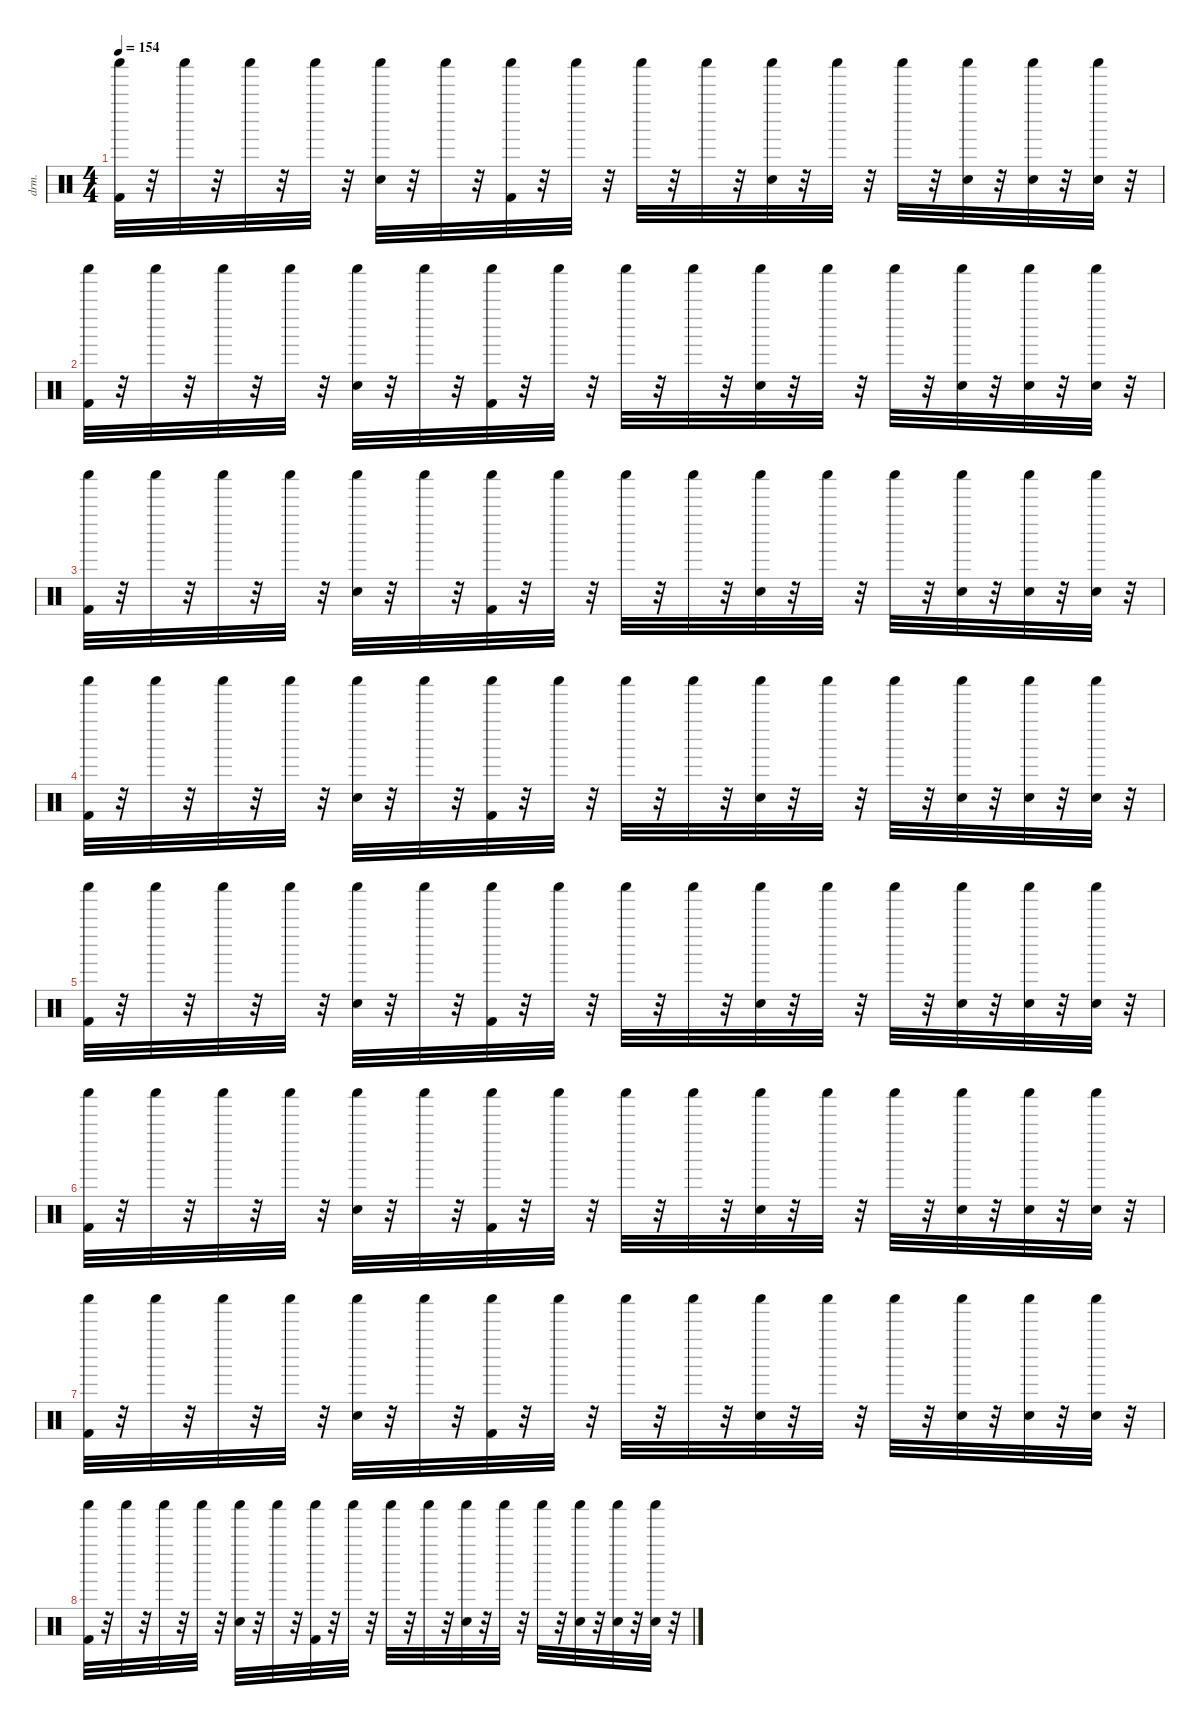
\defaultSystemsLayout 4
\hideDynamics
\bracketExtendMode nobrackets
\otherSystemsTrackNameOrientation horizontal
\track ("Percussion" "drm.") {instrument percussion}
\staff {score}
\articulation defaults
\ts (4 4)
\beaming (8 2 2 2 2)
\tempo 154
\clef neutral
\ks c
("Shaker (hit)" "Kick (hit) 2").32{dy f beam Down} r.32{beam Down} "Shaker (hit)".32{beam Down} r.32{beam Down} "Shaker (hit)".32{beam Down} r.32{beam Down} "Shaker (hit)".32{beam Down} r.32{beam Down} ("Shaker (hit)" "Snare (hit) 2").32{beam Down} r.32{beam Down} "Shaker (hit)".32{beam Down} r.32{beam Down} ("Shaker (hit)" "Kick (hit) 2").32{beam Down} r.32{beam Down} "Shaker (hit)".32{beam Down} r.32{beam Down} "Shaker (hit)".32{beam Down} r.32{beam Down} "Shaker (hit)".32{beam Down} r.32{beam Down} ("Shaker (hit)" "Snare (hit) 2").32{beam Down} r.32{beam Down} "Shaker (hit)".32{beam Down} r.32{beam Down} "Shaker (hit)".32{beam Down} r.32{beam Down} ("Shaker (hit)" "Snare (hit) 2").32{beam Down} r.32{beam Down} ("Shaker (hit)" "Snare (hit) 2").32{beam Down} r.32{beam Down} ("Shaker (hit)" "Snare (hit) 2").32{beam Down} r.32{beam Down} |
("Shaker (hit)" "Kick (hit) 2").32{beam Down} r.32{beam Down} "Shaker (hit)".32{beam Down} r.32{beam Down} "Shaker (hit)".32{beam Down} r.32{beam Down} "Shaker (hit)".32{beam Down} r.32{beam Down} ("Shaker (hit)" "Snare (hit) 2").32{beam Down} r.32{beam Down} "Shaker (hit)".32{beam Down} r.32{beam Down} ("Shaker (hit)" "Kick (hit) 2").32{beam Down} r.32{beam Down} "Shaker (hit)".32{beam Down} r.32{beam Down} "Shaker (hit)".32{beam Down} r.32{beam Down} "Shaker (hit)".32{beam Down} r.32{beam Down} ("Shaker (hit)" "Snare (hit) 2").32{beam Down} r.32{beam Down} "Shaker (hit)".32{beam Down} r.32{beam Down} "Shaker (hit)".32{beam Down} r.32{beam Down} ("Shaker (hit)" "Snare (hit) 2").32{beam Down} r.32{beam Down} ("Shaker (hit)" "Snare (hit) 2").32{beam Down} r.32{beam Down} ("Shaker (hit)" "Snare (hit) 2").32{beam Down} r.32{beam Down} |
("Shaker (hit)" "Kick (hit) 2").32{beam Down} r.32{beam Down} "Shaker (hit)".32{beam Down} r.32{beam Down} "Shaker (hit)".32{beam Down} r.32{beam Down} "Shaker (hit)".32{beam Down} r.32{beam Down} ("Shaker (hit)" "Snare (hit) 2").32{beam Down} r.32{beam Down} "Shaker (hit)".32{beam Down} r.32{beam Down} ("Shaker (hit)" "Kick (hit) 2").32{beam Down} r.32{beam Down} "Shaker (hit)".32{beam Down} r.32{beam Down} "Shaker (hit)".32{beam Down} r.32{beam Down} "Shaker (hit)".32{beam Down} r.32{beam Down} ("Shaker (hit)" "Snare (hit) 2").32{beam Down} r.32{beam Down} "Shaker (hit)".32{beam Down} r.32{beam Down} "Shaker (hit)".32{beam Down} r.32{beam Down} ("Shaker (hit)" "Snare (hit) 2").32{beam Down} r.32{beam Down} ("Shaker (hit)" "Snare (hit) 2").32{beam Down} r.32{beam Down} ("Shaker (hit)" "Snare (hit) 2").32{beam Down} r.32{beam Down} |
("Shaker (hit)" "Kick (hit) 2").32{beam Down} r.32{beam Down} "Shaker (hit)".32{beam Down} r.32{beam Down} "Shaker (hit)".32{beam Down} r.32{beam Down} "Shaker (hit)".32{beam Down} r.32{beam Down} ("Shaker (hit)" "Snare (hit) 2").32{beam Down} r.32{beam Down} "Shaker (hit)".32{beam Down} r.32{beam Down} ("Shaker (hit)" "Kick (hit) 2").32{beam Down} r.32{beam Down} "Shaker (hit)".32{beam Down} r.32{beam Down} "Shaker (hit)".32{beam Down} r.32{beam Down} "Shaker (hit)".32{beam Down} r.32{beam Down} ("Shaker (hit)" "Snare (hit) 2").32{beam Down} r.32{beam Down} "Shaker (hit)".32{beam Down} r.32{beam Down} "Shaker (hit)".32{beam Down} r.32{beam Down} ("Shaker (hit)" "Snare (hit) 2").32{beam Down} r.32{beam Down} ("Shaker (hit)" "Snare (hit) 2").32{beam Down} r.32{beam Down} ("Shaker (hit)" "Snare (hit) 2").32{beam Down} r.32{beam Down} |
("Shaker (hit)" "Kick (hit) 2").32{beam Down} r.32{beam Down} "Shaker (hit)".32{beam Down} r.32{beam Down} "Shaker (hit)".32{beam Down} r.32{beam Down} "Shaker (hit)".32{beam Down} r.32{beam Down} ("Shaker (hit)" "Snare (hit) 2").32{beam Down} r.32{beam Down} "Shaker (hit)".32{beam Down} r.32{beam Down} ("Shaker (hit)" "Kick (hit) 2").32{beam Down} r.32{beam Down} "Shaker (hit)".32{beam Down} r.32{beam Down} "Shaker (hit)".32{beam Down} r.32{beam Down} "Shaker (hit)".32{beam Down} r.32{beam Down} ("Shaker (hit)" "Snare (hit) 2").32{beam Down} r.32{beam Down} "Shaker (hit)".32{beam Down} r.32{beam Down} "Shaker (hit)".32{beam Down} r.32{beam Down} ("Shaker (hit)" "Snare (hit) 2").32{beam Down} r.32{beam Down} ("Shaker (hit)" "Snare (hit) 2").32{beam Down} r.32{beam Down} ("Shaker (hit)" "Snare (hit) 2").32{beam Down} r.32{beam Down} |
("Shaker (hit)" "Kick (hit) 2").32{beam Down} r.32{beam Down} "Shaker (hit)".32{beam Down} r.32{beam Down} "Shaker (hit)".32{beam Down} r.32{beam Down} "Shaker (hit)".32{beam Down} r.32{beam Down} ("Shaker (hit)" "Snare (hit) 2").32{beam Down} r.32{beam Down} "Shaker (hit)".32{beam Down} r.32{beam Down} ("Shaker (hit)" "Kick (hit) 2").32{beam Down} r.32{beam Down} "Shaker (hit)".32{beam Down} r.32{beam Down} "Shaker (hit)".32{beam Down} r.32{beam Down} "Shaker (hit)".32{beam Down} r.32{beam Down} ("Shaker (hit)" "Snare (hit) 2").32{beam Down} r.32{beam Down} "Shaker (hit)".32{beam Down} r.32{beam Down} "Shaker (hit)".32{beam Down} r.32{beam Down} ("Shaker (hit)" "Snare (hit) 2").32{beam Down} r.32{beam Down} ("Shaker (hit)" "Snare (hit) 2").32{beam Down} r.32{beam Down} ("Shaker (hit)" "Snare (hit) 2").32{beam Down} r.32{beam Down} |
("Shaker (hit)" "Kick (hit) 2").32{beam Down} r.32{beam Down} "Shaker (hit)".32{beam Down} r.32{beam Down} "Shaker (hit)".32{beam Down} r.32{beam Down} "Shaker (hit)".32{beam Down} r.32{beam Down} ("Shaker (hit)" "Snare (hit) 2").32{beam Down} r.32{beam Down} "Shaker (hit)".32{beam Down} r.32{beam Down} ("Shaker (hit)" "Kick (hit) 2").32{beam Down} r.32{beam Down} "Shaker (hit)".32{beam Down} r.32{beam Down} "Shaker (hit)".32{beam Down} r.32{beam Down} "Shaker (hit)".32{beam Down} r.32{beam Down} ("Shaker (hit)" "Snare (hit) 2").32{beam Down} r.32{beam Down} "Shaker (hit)".32{beam Down} r.32{beam Down} "Shaker (hit)".32{beam Down} r.32{beam Down} ("Shaker (hit)" "Snare (hit) 2").32{beam Down} r.32{beam Down} ("Shaker (hit)" "Snare (hit) 2").32{beam Down} r.32{beam Down} ("Shaker (hit)" "Snare (hit) 2").32{beam Down} r.32{beam Down} |
("Shaker (hit)" "Kick (hit) 2").32{beam Down} r.32{beam Down} "Shaker (hit)".32{beam Down} r.32{beam Down} "Shaker (hit)".32{beam Down} r.32{beam Down} "Shaker (hit)".32{beam Down} r.32{beam Down} ("Shaker (hit)" "Snare (hit) 2").32{beam Down} r.32{beam Down} "Shaker (hit)".32{beam Down} r.32{beam Down} ("Shaker (hit)" "Kick (hit) 2").32{beam Down} r.32{beam Down} "Shaker (hit)".32{beam Down} r.32{beam Down} "Shaker (hit)".32{beam Down} r.32{beam Down} "Shaker (hit)".32{beam Down} r.32{beam Down} ("Shaker (hit)" "Snare (hit) 2").32{beam Down} r.32{beam Down} "Shaker (hit)".32{beam Down} r.32{beam Down} "Shaker (hit)".32{beam Down} r.32{beam Down} ("Shaker (hit)" "Snare (hit) 2").32{beam Down} r.32{beam Down} ("Shaker (hit)" "Snare (hit) 2").32{beam Down} r.32{beam Down} ("Shaker (hit)" "Snare (hit) 2").32{beam Down} r.32{beam Down}
